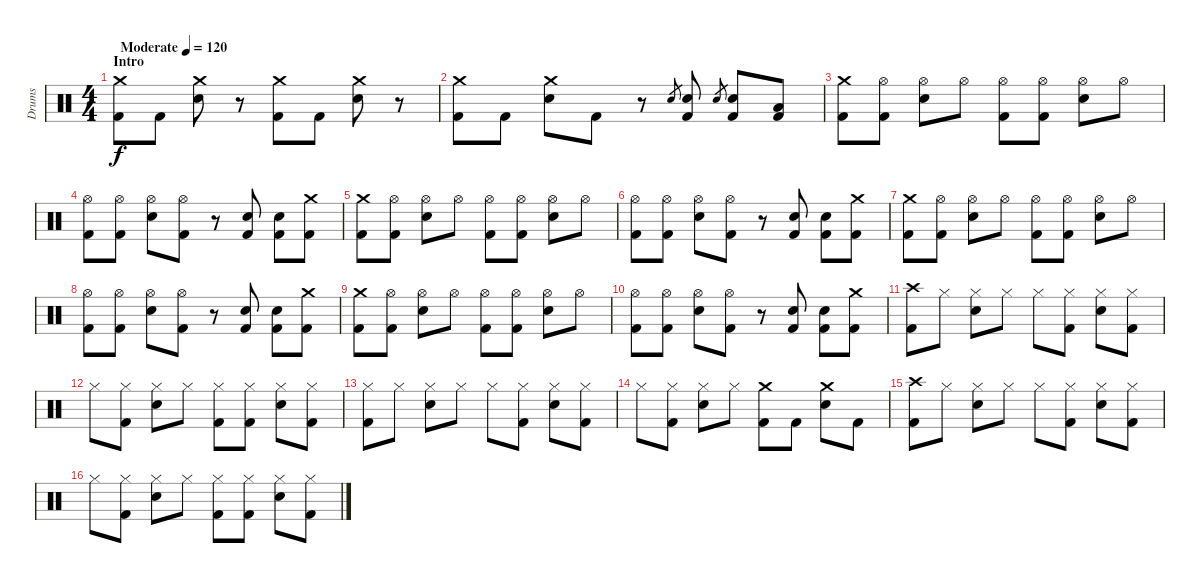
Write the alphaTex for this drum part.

\track ("Drums" "Drums") {instrument percussion}
\staff {score}
\articulation defaults
\ts (4 4)
\section ("" "Intro")
\tempo (120 "Moderate")
\clef neutral
\ks c
("Crash medium (hit)" "Kick (hit) 2").8{dy f} "Kick (hit) 2".8 ("Crash medium (hit)" "Snare (hit) 2").8 r.8 ("Crash medium (hit)" "Kick (hit) 2").8 "Kick (hit) 2".8 ("Crash medium (hit)" "Snare (hit) 2").8 r.8 |
("Crash medium (hit)" "Kick (hit) 2").8 "Kick (hit) 2".8 ("Crash medium (hit)" "Snare (hit) 2").8 "Kick (hit) 2".8 r.8 "Snare (hit) 2".8{gr} ("Snare (hit) 2" "Kick (hit) 2").8 "Snare (hit) 2".8{gr} ("Snare (hit) 2" "Kick (hit) 2").8 ("Low Floor Tom (hit)" "Kick (hit) 2").8 |
("Crash medium (hit)" "Kick (hit) 2").8 ("Hi-Hat (open)" "Kick (hit) 2").8 ("Hi-Hat (open)" "Snare (hit) 2").8 "Hi-Hat (open)".8 ("Hi-Hat (open)" "Kick (hit) 2").8 ("Hi-Hat (open)" "Kick (hit) 2").8 ("Hi-Hat (open)" "Snare (hit) 2").8 "Hi-Hat (open)".8 |
("Hi-Hat (open)" "Kick (hit) 2").8 ("Hi-Hat (open)" "Kick (hit) 2").8 ("Hi-Hat (open)" "Snare (hit) 2").8 ("Hi-Hat (open)" "Kick (hit) 2").8 r.8 ("Snare (hit) 2" "Kick (hit) 2").8 ("Snare (hit) 2" "Kick (hit) 2").8 ("Crash medium (hit)" "Kick (hit) 2").8 |
("Crash medium (hit)" "Kick (hit) 2").8 ("Hi-Hat (open)" "Kick (hit) 2").8 ("Hi-Hat (open)" "Snare (hit) 2").8 "Hi-Hat (open)".8 ("Hi-Hat (open)" "Kick (hit) 2").8 ("Hi-Hat (open)" "Kick (hit) 2").8 ("Hi-Hat (open)" "Snare (hit) 2").8 "Hi-Hat (open)".8 |
("Hi-Hat (open)" "Kick (hit) 2").8 ("Hi-Hat (open)" "Kick (hit) 2").8 ("Hi-Hat (open)" "Snare (hit) 2").8 ("Hi-Hat (open)" "Kick (hit) 2").8 r.8 ("Snare (hit) 2" "Kick (hit) 2").8 ("Snare (hit) 2" "Kick (hit) 2").8 ("Crash medium (hit)" "Kick (hit) 2").8 |
("Crash medium (hit)" "Kick (hit) 2").8 ("Hi-Hat (open)" "Kick (hit) 2").8 ("Hi-Hat (open)" "Snare (hit) 2").8 "Hi-Hat (open)".8 ("Hi-Hat (open)" "Kick (hit) 2").8 ("Hi-Hat (open)" "Kick (hit) 2").8 ("Hi-Hat (open)" "Snare (hit) 2").8 "Hi-Hat (open)".8 |
("Hi-Hat (open)" "Kick (hit) 2").8 ("Hi-Hat (open)" "Kick (hit) 2").8 ("Hi-Hat (open)" "Snare (hit) 2").8 ("Hi-Hat (open)" "Kick (hit) 2").8 r.8 ("Snare (hit) 2" "Kick (hit) 2").8 ("Snare (hit) 2" "Kick (hit) 2").8 ("Crash medium (hit)" "Kick (hit) 2").8 |
("Crash medium (hit)" "Kick (hit) 2").8 ("Hi-Hat (open)" "Kick (hit) 2").8 ("Hi-Hat (open)" "Snare (hit) 2").8 "Hi-Hat (open)".8 ("Hi-Hat (open)" "Kick (hit) 2").8 ("Hi-Hat (open)" "Kick (hit) 2").8 ("Hi-Hat (open)" "Snare (hit) 2").8 "Hi-Hat (open)".8 |
("Hi-Hat (open)" "Kick (hit) 2").8 ("Hi-Hat (open)" "Kick (hit) 2").8 ("Hi-Hat (open)" "Snare (hit) 2").8 ("Hi-Hat (open)" "Kick (hit) 2").8 r.8 ("Snare (hit) 2" "Kick (hit) 2").8 ("Snare (hit) 2" "Kick (hit) 2").8 ("Crash medium (hit)" "Kick (hit) 2").8 |
("Crash high (hit)" "Kick (hit) 2").8 "Hi-Hat (closed)".8 ("Hi-Hat (closed)" "Snare (hit) 2").8 "Hi-Hat (closed)".8 "Hi-Hat (closed)".8 ("Hi-Hat (closed)" "Kick (hit) 2").8 ("Hi-Hat (closed)" "Snare (hit) 2").8 ("Hi-Hat (closed)" "Kick (hit) 2").8 |
"Hi-Hat (closed)".8 ("Hi-Hat (closed)" "Kick (hit) 2").8 ("Hi-Hat (closed)" "Snare (hit) 2").8 "Hi-Hat (closed)".8 ("Hi-Hat (closed)" "Kick (hit) 2").8 ("Hi-Hat (closed)" "Kick (hit) 2").8 ("Hi-Hat (closed)" "Snare (hit) 2").8 ("Hi-Hat (closed)" "Kick (hit) 2").8 |
("Hi-Hat (closed)" "Kick (hit) 2").8 "Hi-Hat (closed)".8 ("Hi-Hat (closed)" "Snare (hit) 2").8 "Hi-Hat (closed)".8 "Hi-Hat (closed)".8 ("Hi-Hat (closed)" "Kick (hit) 2").8 ("Hi-Hat (closed)" "Snare (hit) 2").8 ("Hi-Hat (closed)" "Kick (hit) 2").8 |
"Hi-Hat (closed)".8 ("Hi-Hat (closed)" "Kick (hit) 2").8 ("Hi-Hat (closed)" "Snare (hit) 2").8 "Hi-Hat (closed)".8 ("Crash medium (hit)" "Kick (hit) 2").8 "Kick (hit) 2".8 ("Crash medium (hit)" "Snare (hit) 2").8 "Kick (hit) 2".8 |
("Crash high (hit)" "Kick (hit) 2").8 "Hi-Hat (closed)".8 ("Hi-Hat (closed)" "Snare (hit) 2").8 "Hi-Hat (closed)".8 "Hi-Hat (closed)".8 ("Hi-Hat (closed)" "Kick (hit) 2").8 ("Hi-Hat (closed)" "Snare (hit) 2").8 ("Hi-Hat (closed)" "Kick (hit) 2").8 |
"Hi-Hat (closed)".8 ("Hi-Hat (closed)" "Kick (hit) 2").8 ("Hi-Hat (closed)" "Snare (hit) 2").8 "Hi-Hat (closed)".8 ("Hi-Hat (closed)" "Kick (hit) 2").8 ("Hi-Hat (closed)" "Kick (hit) 2").8 ("Hi-Hat (closed)" "Snare (hit) 2").8 ("Hi-Hat (closed)" "Kick (hit) 2").8
